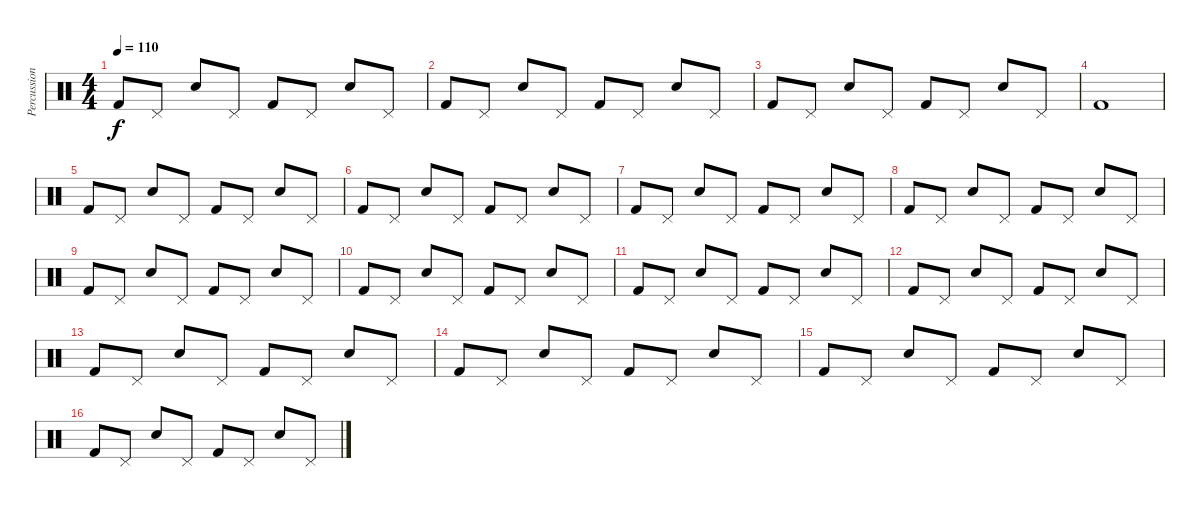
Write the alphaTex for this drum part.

\track ("Percussion" "Percussion") {instrument percussion}
\staff {score}
\articulation defaults
\ts (4 4)
\tempo 110
\clef neutral
\ks c "Kick (hit) 2".8{dy f} "Pedal Hi-Hat (hit)".8 "Snare (hit) 2".8 "Pedal Hi-Hat (hit)".8 "Kick (hit) 2".8 "Pedal Hi-Hat (hit)".8 "Snare (hit) 2".8 "Pedal Hi-Hat (hit)".8
|
"Kick (hit) 2".8 "Pedal Hi-Hat (hit)".8 "Snare (hit) 2".8 "Pedal Hi-Hat (hit)".8 "Kick (hit) 2".8 "Pedal Hi-Hat (hit)".8 "Snare (hit) 2".8 "Pedal Hi-Hat (hit)".8 |
"Kick (hit) 2".8 "Pedal Hi-Hat (hit)".8 "Snare (hit) 2".8 "Pedal Hi-Hat (hit)".8 "Kick (hit) 2".8 "Pedal Hi-Hat (hit)".8 "Snare (hit) 2".8 "Pedal Hi-Hat (hit)".8 |
"Kick (hit) 2".1 |
"Kick (hit) 2".8 "Pedal Hi-Hat (hit)".8 "Snare (hit) 2".8 "Pedal Hi-Hat (hit)".8 "Kick (hit) 2".8 "Pedal Hi-Hat (hit)".8 "Snare (hit) 2".8 "Pedal Hi-Hat (hit)".8 |
"Kick (hit) 2".8 "Pedal Hi-Hat (hit)".8 "Snare (hit) 2".8 "Pedal Hi-Hat (hit)".8 "Kick (hit) 2".8 "Pedal Hi-Hat (hit)".8 "Snare (hit) 2".8 "Pedal Hi-Hat (hit)".8 |
"Kick (hit) 2".8 "Pedal Hi-Hat (hit)".8 "Snare (hit) 2".8 "Pedal Hi-Hat (hit)".8 "Kick (hit) 2".8 "Pedal Hi-Hat (hit)".8 "Snare (hit) 2".8 "Pedal Hi-Hat (hit)".8 |
"Kick (hit) 2".8 "Pedal Hi-Hat (hit)".8 "Snare (hit) 2".8 "Pedal Hi-Hat (hit)".8 "Kick (hit) 2".8 "Pedal Hi-Hat (hit)".8 "Snare (hit) 2".8 "Pedal Hi-Hat (hit)".8 |
"Kick (hit) 2".8 "Pedal Hi-Hat (hit)".8 "Snare (hit) 2".8 "Pedal Hi-Hat (hit)".8 "Kick (hit) 2".8 "Pedal Hi-Hat (hit)".8 "Snare (hit) 2".8 "Pedal Hi-Hat (hit)".8 |
"Kick (hit) 2".8 "Pedal Hi-Hat (hit)".8 "Snare (hit) 2".8 "Pedal Hi-Hat (hit)".8 "Kick (hit) 2".8 "Pedal Hi-Hat (hit)".8 "Snare (hit) 2".8 "Pedal Hi-Hat (hit)".8 |
"Kick (hit) 2".8 "Pedal Hi-Hat (hit)".8 "Snare (hit) 2".8 "Pedal Hi-Hat (hit)".8 "Kick (hit) 2".8 "Pedal Hi-Hat (hit)".8 "Snare (hit) 2".8 "Pedal Hi-Hat (hit)".8 |
"Kick (hit) 2".8 "Pedal Hi-Hat (hit)".8 "Snare (hit) 2".8 "Pedal Hi-Hat (hit)".8 "Kick (hit) 2".8 "Pedal Hi-Hat (hit)".8 "Snare (hit) 2".8 "Pedal Hi-Hat (hit)".8 |
"Kick (hit) 2".8 "Pedal Hi-Hat (hit)".8 "Snare (hit) 2".8 "Pedal Hi-Hat (hit)".8 "Kick (hit) 2".8 "Pedal Hi-Hat (hit)".8 "Snare (hit) 2".8 "Pedal Hi-Hat (hit)".8 |
"Kick (hit) 2".8 "Pedal Hi-Hat (hit)".8 "Snare (hit) 2".8 "Pedal Hi-Hat (hit)".8 "Kick (hit) 2".8 "Pedal Hi-Hat (hit)".8 "Snare (hit) 2".8 "Pedal Hi-Hat (hit)".8 |
"Kick (hit) 2".8 "Pedal Hi-Hat (hit)".8 "Snare (hit) 2".8 "Pedal Hi-Hat (hit)".8 "Kick (hit) 2".8 "Pedal Hi-Hat (hit)".8 "Snare (hit) 2".8 "Pedal Hi-Hat (hit)".8 |
"Kick (hit) 2".8 "Pedal Hi-Hat (hit)".8 "Snare (hit) 2".8 "Pedal Hi-Hat (hit)".8 "Kick (hit) 2".8 "Pedal Hi-Hat (hit)".8 "Snare (hit) 2".8 "Pedal Hi-Hat (hit)".8
